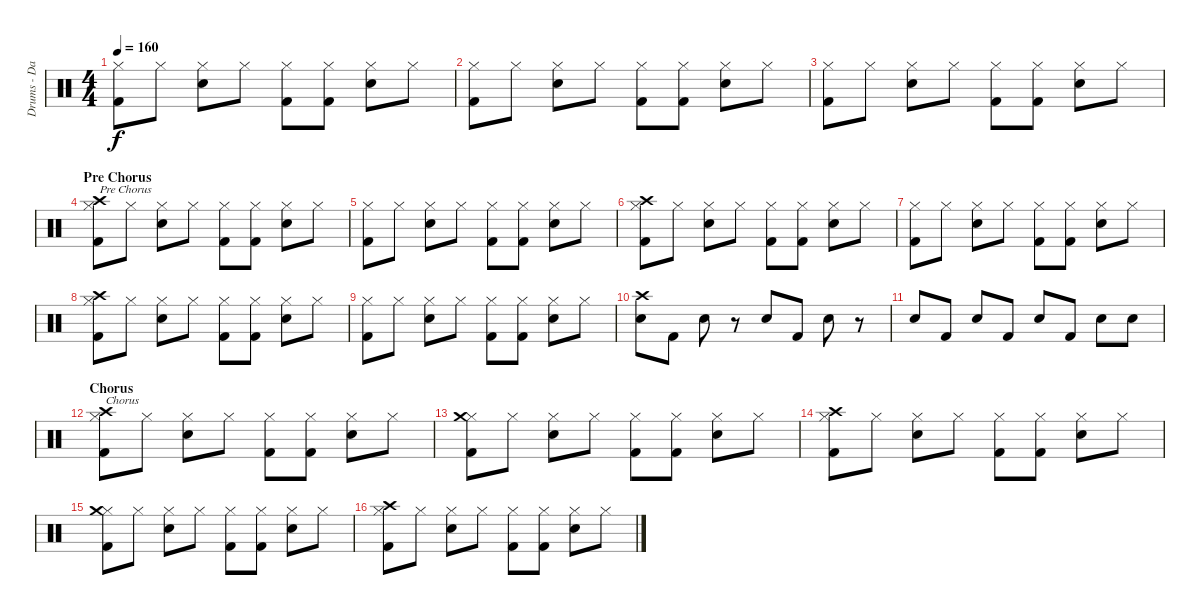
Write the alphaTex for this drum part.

\track ("Drums - Daniel Zimmermann" "Drums - Da") {instrument percussion}
\staff {score}
\articulation defaults
\ts (4 4)
\tempo 160
\clef neutral
\ks c
("Hi-Hat (closed)" "Kick (hit) 2").8{dy f} "Hi-Hat (closed)".8 ("Hi-Hat (closed)" "Snare (hit) 2").8 "Hi-Hat (closed)".8 ("Hi-Hat (closed)" "Kick (hit) 2").8 ("Hi-Hat (closed)" "Kick (hit) 2").8 ("Hi-Hat (closed)" "Snare (hit) 2").8 "Hi-Hat (closed)".8 |
("Hi-Hat (closed)" "Kick (hit) 2").8 "Hi-Hat (closed)".8 ("Hi-Hat (closed)" "Snare (hit) 2").8 "Hi-Hat (closed)".8 ("Hi-Hat (closed)" "Kick (hit) 2").8 ("Hi-Hat (closed)" "Kick (hit) 2").8 ("Hi-Hat (closed)" "Snare (hit) 2").8 "Hi-Hat (closed)".8 |
("Hi-Hat (closed)" "Kick (hit) 2").8 "Hi-Hat (closed)".8 ("Hi-Hat (closed)" "Snare (hit) 2").8 "Hi-Hat (closed)".8 ("Hi-Hat (closed)" "Kick (hit) 2").8 ("Hi-Hat (closed)" "Kick (hit) 2").8 ("Hi-Hat (closed)" "Snare (hit) 2").8 "Hi-Hat (closed)".8 |
\section ("" "Pre Chorus")
("Hi-Hat (closed)" "Kick (hit) 2" "Crash high (hit)").8{txt "Pre Chorus"} "Hi-Hat (closed)".8 ("Hi-Hat (closed)" "Snare (hit) 2").8 "Hi-Hat (closed)".8 ("Hi-Hat (closed)" "Kick (hit) 2").8 ("Hi-Hat (closed)" "Kick (hit) 2").8 ("Hi-Hat (closed)" "Snare (hit) 2").8 "Hi-Hat (closed)".8 |
("Hi-Hat (closed)" "Kick (hit) 2").8 "Hi-Hat (closed)".8 ("Hi-Hat (closed)" "Snare (hit) 2").8 "Hi-Hat (closed)".8 ("Hi-Hat (closed)" "Kick (hit) 2").8 ("Hi-Hat (closed)" "Kick (hit) 2").8 ("Hi-Hat (closed)" "Snare (hit) 2").8 "Hi-Hat (closed)".8 |
("Hi-Hat (closed)" "Kick (hit) 2" "Crash high (hit)").8 "Hi-Hat (closed)".8 ("Hi-Hat (closed)" "Snare (hit) 2").8 "Hi-Hat (closed)".8 ("Hi-Hat (closed)" "Kick (hit) 2").8 ("Hi-Hat (closed)" "Kick (hit) 2").8 ("Hi-Hat (closed)" "Snare (hit) 2").8 "Hi-Hat (closed)".8 |
("Hi-Hat (closed)" "Kick (hit) 2").8 "Hi-Hat (closed)".8 ("Hi-Hat (closed)" "Snare (hit) 2").8 "Hi-Hat (closed)".8 ("Hi-Hat (closed)" "Kick (hit) 2").8 ("Hi-Hat (closed)" "Kick (hit) 2").8 ("Hi-Hat (closed)" "Snare (hit) 2").8 "Hi-Hat (closed)".8 |
("Hi-Hat (closed)" "Kick (hit) 2" "Crash high (hit)").8 "Hi-Hat (closed)".8 ("Hi-Hat (closed)" "Snare (hit) 2").8 "Hi-Hat (closed)".8 ("Hi-Hat (closed)" "Kick (hit) 2").8 ("Hi-Hat (closed)" "Kick (hit) 2").8 ("Hi-Hat (closed)" "Snare (hit) 2").8 "Hi-Hat (closed)".8 |
("Hi-Hat (closed)" "Kick (hit) 2").8 "Hi-Hat (closed)".8 ("Hi-Hat (closed)" "Snare (hit) 2").8 "Hi-Hat (closed)".8 ("Hi-Hat (closed)" "Kick (hit) 2").8 ("Hi-Hat (closed)" "Kick (hit) 2").8 ("Hi-Hat (closed)" "Snare (hit) 2").8 "Hi-Hat (closed)".8 |
("Snare (hit) 2" "Crash high (hit)").8 "Kick (hit) 2".8 "Snare (hit) 2".8 r.8 "Snare (hit) 2".8 "Kick (hit) 2".8 "Snare (hit) 2".8 r.8 |
"Snare (hit) 2".8 "Kick (hit) 2".8 "Snare (hit) 2".8 "Kick (hit) 2".8 "Snare (hit) 2".8 "Kick (hit) 2".8 "Snare (hit) 2".8 "Snare (hit) 2".8 |
\section ("" "Chorus")
("Hi-Hat (closed)" "Kick (hit) 2" "Crash high (hit)").8{txt "Chorus"} "Hi-Hat (closed)".8 ("Hi-Hat (closed)" "Snare (hit) 2").8 "Hi-Hat (closed)".8 ("Hi-Hat (closed)" "Kick (hit) 2").8 ("Hi-Hat (closed)" "Kick (hit) 2").8 ("Hi-Hat (closed)" "Snare (hit) 2").8 "Hi-Hat (closed)".8 |
("Hi-Hat (closed)" "Kick (hit) 2" "Crash medium (hit)").8 "Hi-Hat (closed)".8 ("Hi-Hat (closed)" "Snare (hit) 2").8 "Hi-Hat (closed)".8 ("Hi-Hat (closed)" "Kick (hit) 2").8 ("Hi-Hat (closed)" "Kick (hit) 2").8 ("Hi-Hat (closed)" "Snare (hit) 2").8 "Hi-Hat (closed)".8 |
("Hi-Hat (closed)" "Kick (hit) 2" "Crash high (hit)").8 "Hi-Hat (closed)".8 ("Hi-Hat (closed)" "Snare (hit) 2").8 "Hi-Hat (closed)".8 ("Hi-Hat (closed)" "Kick (hit) 2").8 ("Hi-Hat (closed)" "Kick (hit) 2").8 ("Hi-Hat (closed)" "Snare (hit) 2").8 "Hi-Hat (closed)".8 |
("Hi-Hat (closed)" "Kick (hit) 2" "Crash medium (hit)").8 "Hi-Hat (closed)".8 ("Hi-Hat (closed)" "Snare (hit) 2").8 "Hi-Hat (closed)".8 ("Hi-Hat (closed)" "Kick (hit) 2").8 ("Hi-Hat (closed)" "Kick (hit) 2").8 ("Hi-Hat (closed)" "Snare (hit) 2").8 "Hi-Hat (closed)".8 |
("Hi-Hat (closed)" "Kick (hit) 2" "Crash high (hit)").8 "Hi-Hat (closed)".8 ("Hi-Hat (closed)" "Snare (hit) 2").8 "Hi-Hat (closed)".8 ("Hi-Hat (closed)" "Kick (hit) 2").8 ("Hi-Hat (closed)" "Kick (hit) 2").8 ("Hi-Hat (closed)" "Snare (hit) 2").8 "Hi-Hat (closed)".8
